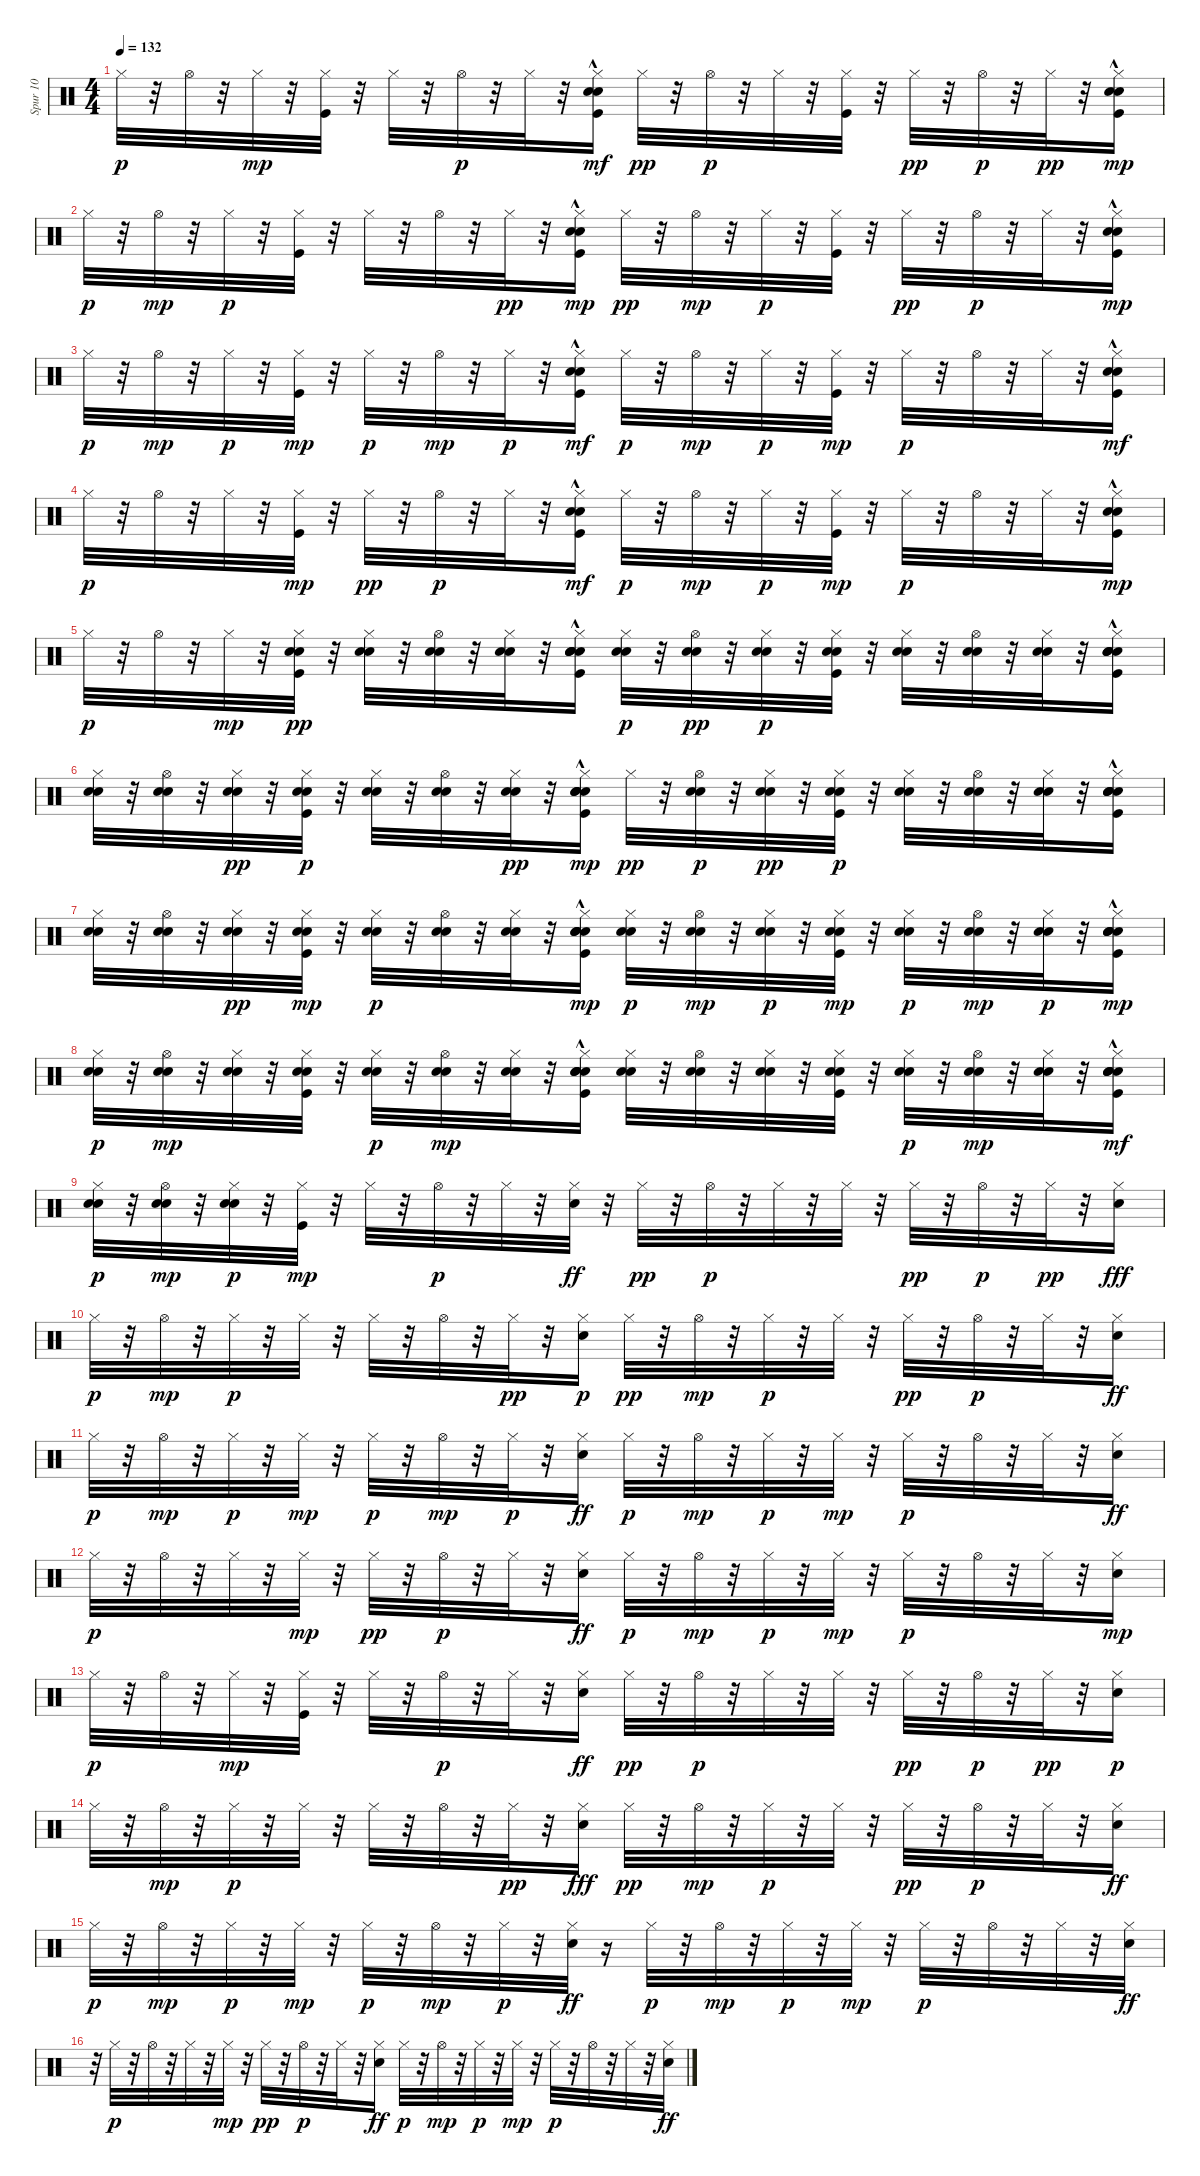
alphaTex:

\track ("Spur 10" "Spur 10") {instrument percussion}
\staff {score}
\articulation defaults
\ts (4 4)
\tempo 132
\clef neutral
\ks c "Hi-Hat (closed)".32{dy p}
r.32 "Hi-Hat (open)".32 r.32 "Hi-Hat (closed)".32{dy mp} r.32 ("Kick (hit)" "Hi-Hat (closed)").32 r.32 "Hi-Hat (closed)".32 r.32 "Hi-Hat (open)".32{dy p} r.32 "Hi-Hat (closed)".32 r.32 ("Hi-Hat (closed)" "Snare (hit) 2" "Kick (hit)" "Hand Clap (hit)"{hac}).16{dy mf} "Hi-Hat (closed)".32{dy pp} r.32 "Hi-Hat (open)".32{dy p} r.32 "Hi-Hat (closed)".32 r.32 ("Hi-Hat (closed)" "Kick (hit)").32 r.32 "Hi-Hat (closed)".32{dy pp} r.32 "Hi-Hat (open)".32{dy p} r.32 "Hi-Hat (closed)".32{dy pp} r.32 ("Hi-Hat (closed)" "Kick (hit)" "Snare (hit) 2" "Hand Clap (hit)"{hac}).16{dy mp} |
"Hi-Hat (closed)".32{dy p} r.32 "Hi-Hat (open)".32{dy mp} r.32 "Hi-Hat (closed)".32{dy p} r.32 ("Hi-Hat (closed)" "Kick (hit)").32 r.32 "Hi-Hat (closed)".32 r.32 "Hi-Hat (open)".32 r.32 "Hi-Hat (closed)".32{dy pp} r.32 ("Hi-Hat (closed)" "Kick (hit)" "Snare (hit) 2" "Hand Clap (hit)"{hac}).16{dy mp} "Hi-Hat (closed)".32{dy pp} r.32 "Hi-Hat (open)".32{dy mp} r.32 "Hi-Hat (closed)".32{dy p} r.32 ("Hi-Hat (closed)" "Kick (hit)").32 r.32 "Hi-Hat (closed)".32{dy pp} r.32 "Hi-Hat (open)".32{dy p} r.32 "Hi-Hat (closed)".32 r.32 ("Hi-Hat (closed)" "Kick (hit)" "Snare (hit) 2" "Hand Clap (hit)"{hac}).16{dy mp} |
"Hi-Hat (closed)".32{dy p} r.32 "Hi-Hat (open)".32{dy mp} r.32 "Hi-Hat (closed)".32{dy p} r.32 ("Hi-Hat (closed)" "Kick (hit)").32{dy mp} r.32 "Hi-Hat (closed)".32{dy p} r.32 "Hi-Hat (open)".32{dy mp} r.32 "Hi-Hat (closed)".32{dy p} r.32 ("Hi-Hat (closed)" "Snare (hit) 2" "Kick (hit)" "Hand Clap (hit)"{hac}).16{dy mf} "Hi-Hat (closed)".32{dy p} r.32 "Hi-Hat (open)".32{dy mp} r.32 "Hi-Hat (closed)".32{dy p} r.32 ("Hi-Hat (closed)" "Kick (hit)").32{dy mp} r.32 "Hi-Hat (closed)".32{dy p} r.32 "Hi-Hat (open)".32 r.32 "Hi-Hat (closed)".32 r.32 ("Hi-Hat (closed)" "Snare (hit) 2" "Kick (hit)" "Hand Clap (hit)"{hac}).16{dy mf} |
"Hi-Hat (closed)".32{dy p} r.32 "Hi-Hat (open)".32 r.32 "Hi-Hat (closed)".32 r.32 ("Hi-Hat (closed)" "Kick (hit)").32{dy mp} r.32 "Hi-Hat (closed)".32{dy pp} r.32 "Hi-Hat (open)".32{dy p} r.32 "Hi-Hat (closed)".32 r.32 ("Hi-Hat (closed)" "Snare (hit) 2" "Kick (hit)" "Hand Clap (hit)"{hac}).16{dy mf} "Hi-Hat (closed)".32{dy p} r.32 "Hi-Hat (open)".32{dy mp} r.32 "Hi-Hat (closed)".32{dy p} r.32 ("Hi-Hat (closed)" "Kick (hit)").32{dy mp} r.32 "Hi-Hat (closed)".32{dy p} r.32 "Hi-Hat (open)".32 r.32 "Hi-Hat (closed)".32 r.32 ("Hi-Hat (closed)" "Kick (hit)" "Snare (hit) 2" "Hand Clap (hit)"{hac}).16{dy mp} |
"Hi-Hat (closed)".32{dy p} r.32 "Hi-Hat (open)".32 r.32 "Hi-Hat (closed)".32{dy mp} r.32 ("Kick (hit)" "Hi-Hat (closed)" "Electric Snare (hit)" "Electric Snare (hit)").32{dy pp} r.32 ("Hi-Hat (closed)" "Electric Snare (hit)" "Electric Snare (hit)").32 r.32 ("Hi-Hat (open)" "Electric Snare (hit)" "Electric Snare (hit)").32 r.32 ("Hi-Hat (closed)" "Electric Snare (hit)" "Electric Snare (hit)").32 r.32 ("Hi-Hat (closed)" "Snare (hit) 2" "Kick (hit)" "Electric Snare (hit)" "Electric Snare (hit)" "Hand Clap (hit)"{hac}).16 ("Hi-Hat (closed)" "Electric Snare (hit)" "Electric Snare (hit)").32{dy p} r.32 ("Hi-Hat (open)" "Electric Snare (hit)" "Electric Snare (hit)").32{dy pp} r.32 ("Hi-Hat (closed)" "Electric Snare (hit)" "Electric Snare (hit)").32{dy p} r.32 ("Hi-Hat (closed)" "Kick (hit)" "Electric Snare (hit)" "Electric Snare (hit)").32 r.32 ("Hi-Hat (closed)" "Electric Snare (hit)" "Electric Snare (hit)").32 r.32 ("Hi-Hat (open)" "Electric Snare (hit)" "Electric Snare (hit)").32 r.32 ("Hi-Hat (closed)" "Electric Snare (hit)" "Electric Snare (hit)").32 r.32 ("Hi-Hat (closed)" "Kick (hit)" "Snare (hit) 2" "Electric Snare (hit)" "Electric Snare (hit)" "Hand Clap (hit)"{hac}).16 |
("Hi-Hat (closed)" "Electric Snare (hit)" "Electric Snare (hit)").32 r.32 ("Hi-Hat (open)" "Electric Snare (hit)" "Electric Snare (hit)").32 r.32 ("Hi-Hat (closed)" "Electric Snare (hit)" "Electric Snare (hit)").32{dy pp} r.32 ("Hi-Hat (closed)" "Kick (hit)" "Electric Snare (hit)" "Electric Snare (hit)").32{dy p} r.32 ("Hi-Hat (closed)" "Electric Snare (hit)" "Electric Snare (hit)").32 r.32 ("Hi-Hat (open)" "Electric Snare (hit)" "Electric Snare (hit)").32 r.32 ("Hi-Hat (closed)" "Electric Snare (hit)" "Electric Snare (hit)").32{dy pp} r.32 ("Hi-Hat (closed)" "Kick (hit)" "Snare (hit) 2" "Electric Snare (hit)" "Electric Snare (hit)" "Hand Clap (hit)"{hac}).16{dy mp} "Hi-Hat (closed)".32{dy pp} r.32 ("Hi-Hat (open)" "Electric Snare (hit)" "Electric Snare (hit)").32{dy p} r.32 ("Hi-Hat (closed)" "Electric Snare (hit)" "Electric Snare (hit)").32{dy pp} r.32 ("Hi-Hat (closed)" "Kick (hit)" "Electric Snare (hit)" "Electric Snare (hit)").32{dy p} r.32 ("Hi-Hat (closed)" "Electric Snare (hit)" "Electric Snare (hit)").32 r.32 ("Hi-Hat (open)" "Electric Snare (hit)" "Electric Snare (hit)").32 r.32 ("Hi-Hat (closed)" "Electric Snare (hit)" "Electric Snare (hit)").32 r.32 ("Hi-Hat (closed)" "Kick (hit)" "Snare (hit) 2" "Electric Snare (hit)" "Electric Snare (hit)" "Hand Clap (hit)"{hac}).16 |
("Hi-Hat (closed)" "Electric Snare (hit)" "Electric Snare (hit)").32 r.32 ("Hi-Hat (open)" "Electric Snare (hit)" "Electric Snare (hit)").32 r.32 ("Hi-Hat (closed)" "Electric Snare (hit)" "Electric Snare (hit)").32{dy pp} r.32 ("Hi-Hat (closed)" "Kick (hit)" "Electric Snare (hit)" "Electric Snare (hit)").32{dy mp} r.32 ("Hi-Hat (closed)" "Electric Snare (hit)" "Electric Snare (hit)").32{dy p} r.32 ("Hi-Hat (open)" "Electric Snare (hit)" "Electric Snare (hit)").32 r.32 ("Hi-Hat (closed)" "Electric Snare (hit)" "Electric Snare (hit)").32 r.32 ("Hi-Hat (closed)" "Snare (hit) 2" "Kick (hit)" "Electric Snare (hit)" "Electric Snare (hit)" "Hand Clap (hit)"{hac}).16{dy mp} ("Hi-Hat (closed)" "Electric Snare (hit)" "Electric Snare (hit)").32{dy p} r.32 ("Hi-Hat (open)" "Electric Snare (hit)" "Electric Snare (hit)").32{dy mp} r.32 ("Hi-Hat (closed)" "Electric Snare (hit)" "Electric Snare (hit)").32{dy p} r.32 ("Hi-Hat (closed)" "Kick (hit)" "Electric Snare (hit)" "Electric Snare (hit)").32{dy mp} r.32 ("Hi-Hat (closed)" "Electric Snare (hit)" "Electric Snare (hit)").32{dy p} r.32 ("Hi-Hat (open)" "Electric Snare (hit)" "Electric Snare (hit)").32{dy mp} r.32 ("Hi-Hat (closed)" "Electric Snare (hit)" "Electric Snare (hit)").32{dy p} r.32 ("Hi-Hat (closed)" "Snare (hit) 2" "Kick (hit)" "Electric Snare (hit)" "Electric Snare (hit)" "Hand Clap (hit)"{hac}).16{dy mp} |
("Hi-Hat (closed)" "Electric Snare (hit)" "Electric Snare (hit)").32{dy p} r.32 ("Hi-Hat (open)" "Electric Snare (hit)" "Electric Snare (hit)").32{dy mp} r.32 ("Hi-Hat (closed)" "Electric Snare (hit)" "Electric Snare (hit)").32 r.32 ("Hi-Hat (closed)" "Kick (hit)" "Electric Snare (hit)" "Electric Snare (hit)").32 r.32 ("Hi-Hat (closed)" "Electric Snare (hit)" "Electric Snare (hit)").32{dy p} r.32 ("Hi-Hat (open)" "Electric Snare (hit)" "Electric Snare (hit)").32{dy mp} r.32 ("Hi-Hat (closed)" "Electric Snare (hit)" "Electric Snare (hit)").32 r.32 ("Hi-Hat (closed)" "Snare (hit) 2" "Kick (hit)" "Electric Snare (hit)" "Electric Snare (hit)" "Hand Clap (hit)"{hac}).16 ("Hi-Hat (closed)" "Electric Snare (hit)" "Electric Snare (hit)").32 r.32 ("Hi-Hat (open)" "Electric Snare (hit)" "Electric Snare (hit)").32 r.32 ("Hi-Hat (closed)" "Electric Snare (hit)" "Electric Snare (hit)").32 r.32 ("Hi-Hat (closed)" "Kick (hit)" "Electric Snare (hit)" "Electric Snare (hit)").32 r.32 ("Hi-Hat (closed)" "Electric Snare (hit)" "Electric Snare (hit)").32{dy p} r.32 ("Hi-Hat (open)" "Electric Snare (hit)" "Electric Snare (hit)").32{dy mp} r.32 ("Hi-Hat (closed)" "Electric Snare (hit)" "Electric Snare (hit)").32 r.32 ("Hi-Hat (closed)" "Kick (hit)" "Snare (hit) 2" "Electric Snare (hit)" "Electric Snare (hit)" "Hand Clap (hit)"{hac}).16{dy mf} |
("Hi-Hat (closed)" "Electric Snare (hit)" "Electric Snare (hit)").32{dy p} r.32 ("Hi-Hat (open)" "Electric Snare (hit)" "Electric Snare (hit)").32{dy mp} r.32 ("Hi-Hat (closed)" "Electric Snare (hit)" "Electric Snare (hit)").32{dy p} r.32 ("Kick (hit)" "Hi-Hat (closed)").32{dy mp} r.32 "Hi-Hat (closed)".32 r.32 "Hi-Hat (open)".32{dy p} r.32 "Hi-Hat (closed)".32 r.32 ("Hi-Hat (closed)" "Hand Clap (hit)").32{dy ff} r.32 "Hi-Hat (closed)".32{dy pp} r.32 "Hi-Hat (open)".32{dy p} r.32 "Hi-Hat (closed)".32 r.32 "Hi-Hat (closed)".32 r.32 "Hi-Hat (closed)".32{dy pp} r.32 "Hi-Hat (open)".32{dy p} r.32 "Hi-Hat (closed)".32{dy pp} r.32 ("Hi-Hat (closed)" "Hand Clap (hit)").16{dy fff} |
"Hi-Hat (closed)".32{dy p} r.32 "Hi-Hat (open)".32{dy mp} r.32 "Hi-Hat (closed)".32{dy p} r.32 "Hi-Hat (closed)".32 r.32 "Hi-Hat (closed)".32 r.32 "Hi-Hat (open)".32 r.32 "Hi-Hat (closed)".32{dy pp} r.32 ("Hi-Hat (closed)" "Hand Clap (hit)").16{dy p} "Hi-Hat (closed)".32{dy pp} r.32 "Hi-Hat (open)".32{dy mp} r.32 "Hi-Hat (closed)".32{dy p} r.32 "Hi-Hat (closed)".32 r.32 "Hi-Hat (closed)".32{dy pp} r.32 "Hi-Hat (open)".32{dy p} r.32 "Hi-Hat (closed)".32 r.32 ("Hi-Hat (closed)" "Hand Clap (hit)").16{dy ff} |
"Hi-Hat (closed)".32{dy p} r.32 "Hi-Hat (open)".32{dy mp} r.32 "Hi-Hat (closed)".32{dy p} r.32 "Hi-Hat (closed)".32{dy mp} r.32 "Hi-Hat (closed)".32{dy p} r.32 "Hi-Hat (open)".32{dy mp} r.32 "Hi-Hat (closed)".32{dy p} r.32 ("Hi-Hat (closed)" "Hand Clap (hit)").16{dy ff} "Hi-Hat (closed)".32{dy p} r.32 "Hi-Hat (open)".32{dy mp} r.32 "Hi-Hat (closed)".32{dy p} r.32 "Hi-Hat (closed)".32{dy mp} r.32 "Hi-Hat (closed)".32{dy p} r.32 "Hi-Hat (open)".32 r.32 "Hi-Hat (closed)".32 r.32 ("Hi-Hat (closed)" "Hand Clap (hit)").16{dy ff} |
"Hi-Hat (closed)".32{dy p} r.32 "Hi-Hat (open)".32 r.32 "Hi-Hat (closed)".32 r.32 "Hi-Hat (closed)".32{dy mp} r.32 "Hi-Hat (closed)".32{dy pp} r.32 "Hi-Hat (open)".32{dy p} r.32 "Hi-Hat (closed)".32 r.32 ("Hi-Hat (closed)" "Hand Clap (hit)").16{dy ff} "Hi-Hat (closed)".32{dy p} r.32 "Hi-Hat (open)".32{dy mp} r.32 "Hi-Hat (closed)".32{dy p} r.32 "Hi-Hat (closed)".32{dy mp} r.32 "Hi-Hat (closed)".32{dy p} r.32 "Hi-Hat (open)".32 r.32 "Hi-Hat (closed)".32 r.32 ("Hi-Hat (closed)" "Hand Clap (hit)").16{dy mp} |
"Hi-Hat (closed)".32{dy p} r.32 "Hi-Hat (open)".32 r.32 "Hi-Hat (closed)".32{dy mp} r.32 ("Kick (hit)" "Hi-Hat (closed)").32 r.32 "Hi-Hat (closed)".32 r.32 "Hi-Hat (open)".32{dy p} r.32 "Hi-Hat (closed)".32 r.32 ("Hi-Hat (closed)" "Hand Clap (hit)").16{dy ff} "Hi-Hat (closed)".32{dy pp} r.32 "Hi-Hat (open)".32{dy p} r.32 "Hi-Hat (closed)".32 r.32 "Hi-Hat (closed)".32 r.32 "Hi-Hat (closed)".32{dy pp} r.32 "Hi-Hat (open)".32{dy p} r.32 "Hi-Hat (closed)".32{dy pp} r.32 ("Hi-Hat (closed)" "Hand Clap (hit)").16{dy p} |
"Hi-Hat (closed)".32 r.32 "Hi-Hat (open)".32{dy mp} r.32 "Hi-Hat (closed)".32{dy p} r.32 "Hi-Hat (closed)".32 r.32 "Hi-Hat (closed)".32 r.32 "Hi-Hat (open)".32 r.32 "Hi-Hat (closed)".32{dy pp} r.32 ("Hi-Hat (closed)" "Hand Clap (hit)").16{dy fff} "Hi-Hat (closed)".32{dy pp} r.32 "Hi-Hat (open)".32{dy mp} r.32 "Hi-Hat (closed)".32{dy p} r.32 "Hi-Hat (closed)".32 r.32 "Hi-Hat (closed)".32{dy pp} r.32 "Hi-Hat (open)".32{dy p} r.32 "Hi-Hat (closed)".32 r.32 ("Hi-Hat (closed)" "Hand Clap (hit)").16{dy ff} |
"Hi-Hat (closed)".32{dy p} r.32 "Hi-Hat (open)".32{dy mp} r.32 "Hi-Hat (closed)".32{dy p} r.32 "Hi-Hat (closed)".32{dy mp} r.32 "Hi-Hat (closed)".32{dy p} r.32 "Hi-Hat (open)".32{dy mp} r.32 "Hi-Hat (closed)".32{dy p} r.32 ("Hi-Hat (closed)" "Hand Clap (hit)").32{dy ff} r.16 "Hi-Hat (closed)".32{dy p} r.32 "Hi-Hat (open)".32{dy mp} r.32 "Hi-Hat (closed)".32{dy p} r.32 "Hi-Hat (closed)".32{dy mp} r.32 "Hi-Hat (closed)".32{dy p} r.32 "Hi-Hat (open)".32 r.32 "Hi-Hat (closed)".32 r.32 ("Hi-Hat (closed)" "Hand Clap (hit)").32{dy ff} |
r.32 "Hi-Hat (closed)".32{dy p} r.32 "Hi-Hat (open)".32 r.32 "Hi-Hat (closed)".32 r.32 "Hi-Hat (closed)".32{dy mp} r.32 "Hi-Hat (closed)".32{dy pp} r.32 "Hi-Hat (open)".32{dy p} r.32 "Hi-Hat (closed)".32 r.32 ("Hi-Hat (closed)" "Hand Clap (hit)").16{dy ff} "Hi-Hat (closed)".32{dy p} r.32 "Hi-Hat (open)".32{dy mp} r.32 "Hi-Hat (closed)".32{dy p} r.32 "Hi-Hat (closed)".32{dy mp} r.32 "Hi-Hat (closed)".32{dy p} r.32 "Hi-Hat (open)".32 r.32 "Hi-Hat (closed)".32 r.32 ("Hi-Hat (closed)" "Hand Clap (hit)").32{dy ff}
